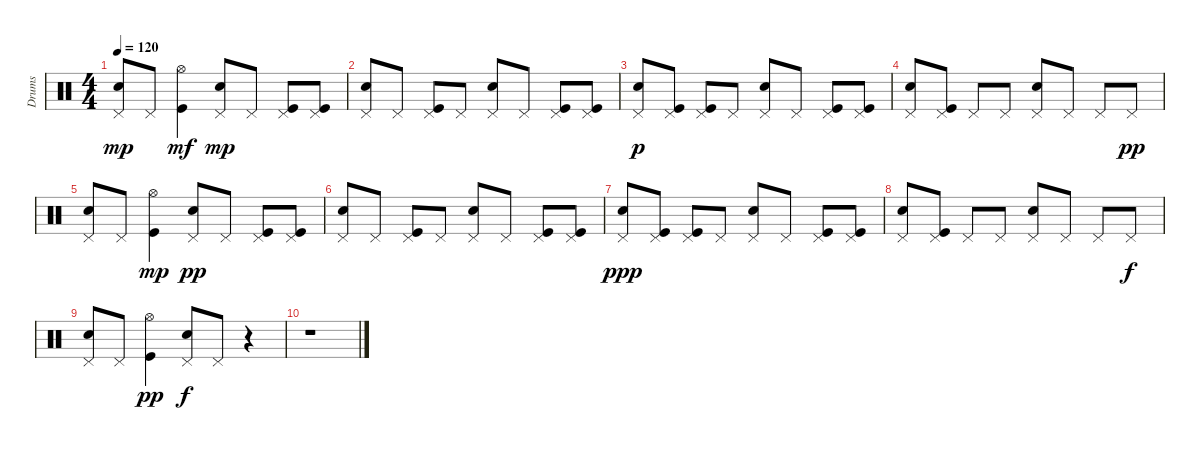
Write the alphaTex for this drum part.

\track ("Drums" "Drums") {instrument percussion}
\staff {score}
\articulation defaults
\ts (4 4)
\tempo 120
\clef neutral
\ks c
("Snare (hit) 2" "Pedal Hi-Hat (hit)").8{dy mp} "Pedal Hi-Hat (hit)".8 ("Kick (hit)" "Hi-Hat (open)").4{dy mf} ("Snare (hit) 2" "Pedal Hi-Hat (hit)").8{dy mp} "Pedal Hi-Hat (hit)".8 ("Kick (hit)" "Pedal Hi-Hat (hit)").8 ("Kick (hit)" "Pedal Hi-Hat (hit)").8 |
("Snare (hit) 2" "Pedal Hi-Hat (hit)").8 "Pedal Hi-Hat (hit)".8 ("Kick (hit)" "Pedal Hi-Hat (hit)").8 "Pedal Hi-Hat (hit)".8 ("Snare (hit) 2" "Pedal Hi-Hat (hit)").8 "Pedal Hi-Hat (hit)".8 ("Kick (hit)" "Pedal Hi-Hat (hit)").8 ("Kick (hit)" "Pedal Hi-Hat (hit)").8 |
("Snare (hit) 2" "Pedal Hi-Hat (hit)").8{dy p} ("Kick (hit)" "Pedal Hi-Hat (hit)").8 ("Kick (hit)" "Pedal Hi-Hat (hit)").8 "Pedal Hi-Hat (hit)".8 ("Snare (hit) 2" "Pedal Hi-Hat (hit)").8 "Pedal Hi-Hat (hit)".8 ("Kick (hit)" "Pedal Hi-Hat (hit)").8 ("Kick (hit)" "Pedal Hi-Hat (hit)").8 |
("Snare (hit) 2" "Pedal Hi-Hat (hit)").8 ("Kick (hit)" "Pedal Hi-Hat (hit)").8 "Pedal Hi-Hat (hit)".8 "Pedal Hi-Hat (hit)".8 ("Snare (hit) 2" "Pedal Hi-Hat (hit)").8 "Pedal Hi-Hat (hit)".8 "Pedal Hi-Hat (hit)".8 "Pedal Hi-Hat (hit)".8{dy pp} |
("Snare (hit) 2" "Pedal Hi-Hat (hit)").8{volume 7} "Pedal Hi-Hat (hit)".8 ("Kick (hit)" "Hi-Hat (open)").4{dy mp} ("Snare (hit) 2" "Pedal Hi-Hat (hit)").8{dy pp} "Pedal Hi-Hat (hit)".8 ("Kick (hit)" "Pedal Hi-Hat (hit)").8 ("Kick (hit)" "Pedal Hi-Hat (hit)").8 |
("Snare (hit) 2" "Pedal Hi-Hat (hit)").8 "Pedal Hi-Hat (hit)".8 ("Kick (hit)" "Pedal Hi-Hat (hit)").8 "Pedal Hi-Hat (hit)".8 ("Snare (hit) 2" "Pedal Hi-Hat (hit)").8 "Pedal Hi-Hat (hit)".8 ("Kick (hit)" "Pedal Hi-Hat (hit)").8 ("Kick (hit)" "Pedal Hi-Hat (hit)").8 |
("Snare (hit) 2" "Pedal Hi-Hat (hit)").8{dy ppp volume 0} ("Kick (hit)" "Pedal Hi-Hat (hit)").8 ("Kick (hit)" "Pedal Hi-Hat (hit)").8 "Pedal Hi-Hat (hit)".8 ("Snare (hit) 2" "Pedal Hi-Hat (hit)").8 "Pedal Hi-Hat (hit)".8 ("Kick (hit)" "Pedal Hi-Hat (hit)").8 ("Kick (hit)" "Pedal Hi-Hat (hit)").8 |
("Snare (hit) 2" "Pedal Hi-Hat (hit)").8 ("Kick (hit)" "Pedal Hi-Hat (hit)").8 "Pedal Hi-Hat (hit)".8 "Pedal Hi-Hat (hit)".8 ("Snare (hit) 2" "Pedal Hi-Hat (hit)").8 "Pedal Hi-Hat (hit)".8 "Pedal Hi-Hat (hit)".8 "Pedal Hi-Hat (hit)".8{dy f} |
("Snare (hit) 2" "Pedal Hi-Hat (hit)").8{volume 0} "Pedal Hi-Hat (hit)".8 ("Kick (hit)" "Hi-Hat (open)").4{dy pp} ("Snare (hit) 2" "Pedal Hi-Hat (hit)").8{dy f} "Pedal Hi-Hat (hit)".8 r.4 |
r.1
